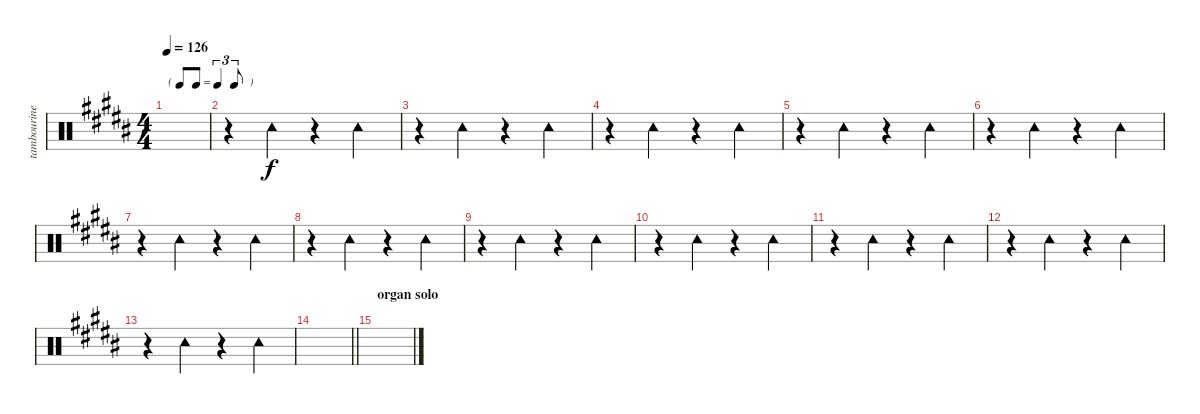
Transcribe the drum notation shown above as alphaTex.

\track ("tambourine" "tambourine") {instrument percussion}
\staff {score}
\articulation defaults
\ts (4 4)
\tf triplet8th
\tempo 126
\clef neutral
\ks b
|
r.4 "Tambourine (hit)".4 r.4 "Tambourine (hit)".4 |
r.4 "Tambourine (hit)".4 r.4 "Tambourine (hit)".4 |
r.4 "Tambourine (hit)".4 r.4 "Tambourine (hit)".4 |
r.4 "Tambourine (hit)".4 r.4 "Tambourine (hit)".4 |
r.4 "Tambourine (hit)".4 r.4 "Tambourine (hit)".4 |
r.4 "Tambourine (hit)".4 r.4 "Tambourine (hit)".4 |
r.4 "Tambourine (hit)".4 r.4 "Tambourine (hit)".4 |
r.4 "Tambourine (hit)".4 r.4 "Tambourine (hit)".4 |
r.4 "Tambourine (hit)".4 r.4 "Tambourine (hit)".4 |
r.4 "Tambourine (hit)".4 r.4 "Tambourine (hit)".4 |
r.4 "Tambourine (hit)".4 r.4 "Tambourine (hit)".4 |
r.4 "Tambourine (hit)".4 r.4 "Tambourine (hit)".4 |
\barLineRight lightlight
|
\section ("" "organ solo")
